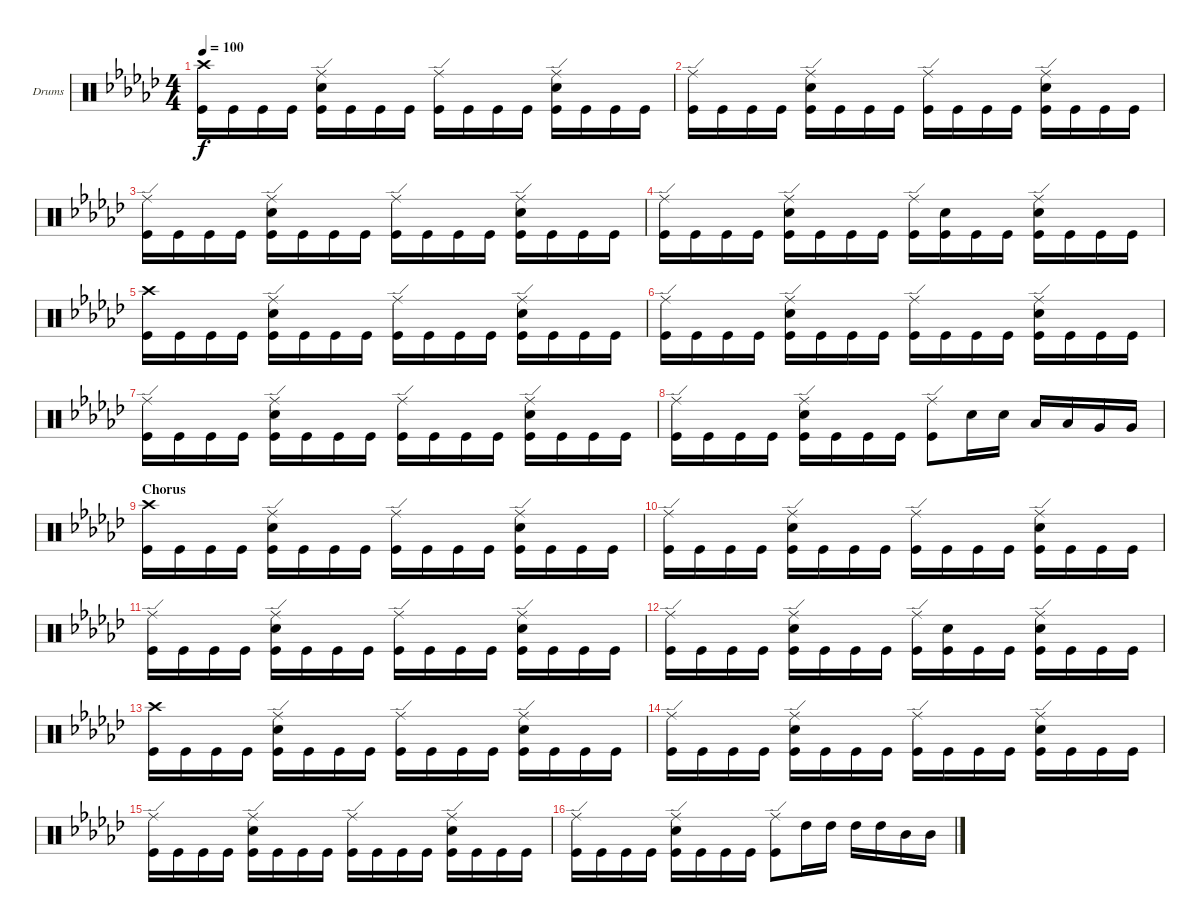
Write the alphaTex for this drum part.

\defaultSystemsLayout 4
\bracketExtendMode groupsimilarinstruments
\firstSystemTrackNameOrientation horizontal
\otherSystemsTrackNameOrientation horizontal
\track ("Drumkit" "Drums") {instrument percussion}
\staff {score}
\articulation defaults
\ts (4 4)
\tempo 100
\clef neutral
\scale
0.333333
\ks ebminor
("Kick (hit)" "Crash high (hit)").16{dy f} "Kick (hit)".16 "Kick (hit)".16 "Kick (hit)".16 ("Kick (hit)" "Snare (hit) 2" "Ride (edge)").16 "Kick (hit)".16 "Kick (hit)".16 "Kick (hit)".16 ("Kick (hit)" "Ride (edge)").16 "Kick (hit)".16 "Kick (hit)".16 "Kick (hit)".16 ("Kick (hit)" "Snare (hit) 2" "Ride (edge)").16 "Kick (hit)".16 "Kick (hit)".16 "Kick (hit)".16 |
\scale
0.333333 ("Kick (hit)" "Ride (edge)").16 "Kick (hit)".16 "Kick (hit)".16 "Kick (hit)".16 ("Kick (hit)" "Snare (hit) 2" "Ride (edge)").16 "Kick (hit)".16 "Kick (hit)".16 "Kick (hit)".16 ("Kick (hit)" "Ride (edge)").16 "Kick (hit)".16 "Kick (hit)".16 "Kick (hit)".16 ("Kick (hit)" "Snare (hit) 2" "Ride (edge)").16 "Kick (hit)".16 "Kick (hit)".16 "Kick (hit)".16 |
\scale
0.333333 ("Kick (hit)" "Ride (edge)").16 "Kick (hit)".16 "Kick (hit)".16 "Kick (hit)".16 ("Kick (hit)" "Snare (hit) 2" "Ride (edge)").16 "Kick (hit)".16 "Kick (hit)".16 "Kick (hit)".16 ("Kick (hit)" "Ride (edge)").16 "Kick (hit)".16 "Kick (hit)".16 "Kick (hit)".16 ("Kick (hit)" "Snare (hit) 2" "Ride (edge)").16 "Kick (hit)".16 "Kick (hit)".16 "Kick (hit)".16 |
\scale
0.333333 ("Kick (hit)" "Ride (edge)").16 "Kick (hit)".16 "Kick (hit)".16 "Kick (hit)".16 ("Kick (hit)" "Snare (hit) 2" "Ride (edge)").16 "Kick (hit)".16 "Kick (hit)".16 "Kick (hit)".16 ("Kick (hit)" "Ride (edge)").16 ("Kick (hit)" "Snare (hit) 2").16 "Kick (hit)".16 "Kick (hit)".16 ("Kick (hit)" "Snare (hit) 2" "Ride (edge)").16 "Kick (hit)".16 "Kick (hit)".16 "Kick (hit)".16 |
\scale
0.333333 ("Kick (hit)" "Crash high (hit)").16 "Kick (hit)".16 "Kick (hit)".16 "Kick (hit)".16 ("Kick (hit)" "Snare (hit) 2" "Ride (edge)").16 "Kick (hit)".16 "Kick (hit)".16 "Kick (hit)".16 ("Kick (hit)" "Ride (edge)").16 "Kick (hit)".16 "Kick (hit)".16 "Kick (hit)".16 ("Kick (hit)" "Snare (hit) 2" "Ride (edge)").16 "Kick (hit)".16 "Kick (hit)".16 "Kick (hit)".16 |
\scale
0.333333 ("Kick (hit)" "Ride (edge)").16 "Kick (hit)".16 "Kick (hit)".16 "Kick (hit)".16 ("Kick (hit)" "Snare (hit) 2" "Ride (edge)").16 "Kick (hit)".16 "Kick (hit)".16 "Kick (hit)".16 ("Kick (hit)" "Ride (edge)").16 "Kick (hit)".16 "Kick (hit)".16 "Kick (hit)".16 ("Kick (hit)" "Snare (hit) 2" "Ride (edge)").16 "Kick (hit)".16 "Kick (hit)".16 "Kick (hit)".16 |
\scale
0.333333 ("Kick (hit)" "Ride (edge)").16 "Kick (hit)".16 "Kick (hit)".16 "Kick (hit)".16 ("Kick (hit)" "Snare (hit) 2" "Ride (edge)").16 "Kick (hit)".16 "Kick (hit)".16 "Kick (hit)".16 ("Kick (hit)" "Ride (edge)").16 "Kick (hit)".16 "Kick (hit)".16 "Kick (hit)".16 ("Kick (hit)" "Snare (hit) 2" "Ride (edge)").16 "Kick (hit)".16 "Kick (hit)".16 "Kick (hit)".16 |
\scale
0.333333 ("Kick (hit)" "Ride (edge)").16 "Kick (hit)".16 "Kick (hit)".16 "Kick (hit)".16 ("Kick (hit)" "Snare (hit) 2" "Ride (edge)").16 "Kick (hit)".16 "Kick (hit)".16 "Kick (hit)".16 ("Kick (hit)" "Ride (edge)").8 "Snare (hit) 2".16 "Snare (hit) 2".16 "Low Tom (hit)".16 "Low Tom (hit)".16 "Very Low Tom (hit)".16 "Very Low Tom (hit)".16 |
\section ("" "Chorus")
\scale
0.333333 ("Kick (hit)" "Crash high (hit)").16 "Kick (hit)".16 "Kick (hit)".16 "Kick (hit)".16 ("Kick (hit)" "Snare (hit) 2" "Ride (edge)").16 "Kick (hit)".16 "Kick (hit)".16 "Kick (hit)".16 ("Kick (hit)" "Ride (edge)").16 "Kick (hit)".16 "Kick (hit)".16 "Kick (hit)".16 ("Kick (hit)" "Snare (hit) 2" "Ride (edge)").16 "Kick (hit)".16 "Kick (hit)".16 "Kick (hit)".16 |
\scale
0.333333 ("Kick (hit)" "Ride (edge)").16 "Kick (hit)".16 "Kick (hit)".16 "Kick (hit)".16 ("Kick (hit)" "Snare (hit) 2" "Ride (edge)").16 "Kick (hit)".16 "Kick (hit)".16 "Kick (hit)".16 ("Kick (hit)" "Ride (edge)").16 "Kick (hit)".16 "Kick (hit)".16 "Kick (hit)".16 ("Kick (hit)" "Snare (hit) 2" "Ride (edge)").16 "Kick (hit)".16 "Kick (hit)".16 "Kick (hit)".16 |
\scale
0.333333 ("Kick (hit)" "Ride (edge)").16 "Kick (hit)".16 "Kick (hit)".16 "Kick (hit)".16 ("Kick (hit)" "Snare (hit) 2" "Ride (edge)").16 "Kick (hit)".16 "Kick (hit)".16 "Kick (hit)".16 ("Kick (hit)" "Ride (edge)").16 "Kick (hit)".16 "Kick (hit)".16 "Kick (hit)".16 ("Kick (hit)" "Snare (hit) 2" "Ride (edge)").16 "Kick (hit)".16 "Kick (hit)".16 "Kick (hit)".16 |
\scale
0.333333 ("Kick (hit)" "Ride (edge)").16 "Kick (hit)".16 "Kick (hit)".16 "Kick (hit)".16 ("Kick (hit)" "Snare (hit) 2" "Ride (edge)").16 "Kick (hit)".16 "Kick (hit)".16 "Kick (hit)".16 ("Kick (hit)" "Ride (edge)").16 ("Kick (hit)" "Snare (hit) 2").16 "Kick (hit)".16 "Kick (hit)".16 ("Kick (hit)" "Snare (hit) 2" "Ride (edge)").16 "Kick (hit)".16 "Kick (hit)".16 "Kick (hit)".16 |
\scale
0.333333 ("Kick (hit)" "Crash high (hit)").16 "Kick (hit)".16 "Kick (hit)".16 "Kick (hit)".16 ("Kick (hit)" "Snare (hit) 2" "Ride (edge)").16 "Kick (hit)".16 "Kick (hit)".16 "Kick (hit)".16 ("Kick (hit)" "Ride (edge)").16 "Kick (hit)".16 "Kick (hit)".16 "Kick (hit)".16 ("Kick (hit)" "Snare (hit) 2" "Ride (edge)").16 "Kick (hit)".16 "Kick (hit)".16 "Kick (hit)".16 |
\scale
0.333333 ("Kick (hit)" "Ride (edge)").16 "Kick (hit)".16 "Kick (hit)".16 "Kick (hit)".16 ("Kick (hit)" "Snare (hit) 2" "Ride (edge)").16 "Kick (hit)".16 "Kick (hit)".16 "Kick (hit)".16 ("Kick (hit)" "Ride (edge)").16 "Kick (hit)".16 "Kick (hit)".16 "Kick (hit)".16 ("Kick (hit)" "Snare (hit) 2" "Ride (edge)").16 "Kick (hit)".16 "Kick (hit)".16 "Kick (hit)".16 |
\scale
0.333333 ("Kick (hit)" "Ride (edge)").16 "Kick (hit)".16 "Kick (hit)".16 "Kick (hit)".16 ("Kick (hit)" "Snare (hit) 2" "Ride (edge)").16 "Kick (hit)".16 "Kick (hit)".16 "Kick (hit)".16 ("Kick (hit)" "Ride (edge)").16 "Kick (hit)".16 "Kick (hit)".16 "Kick (hit)".16 ("Kick (hit)" "Snare (hit) 2" "Ride (edge)").16 "Kick (hit)".16 "Kick (hit)".16 "Kick (hit)".16 |
\scale
0.333333 ("Kick (hit)" "Ride (edge)").16 "Kick (hit)".16 "Kick (hit)".16 "Kick (hit)".16 ("Kick (hit)" "Snare (hit) 2" "Ride (edge)").16 "Kick (hit)".16 "Kick (hit)".16 "Kick (hit)".16 ("Kick (hit)" "Ride (edge)").8 "High Tom (hit)".16 "High Tom (hit)".16 "High Tom (hit)".16 "High Tom (hit)".16 "Mid Tom (hit)".16 "Mid Tom (hit)".16
